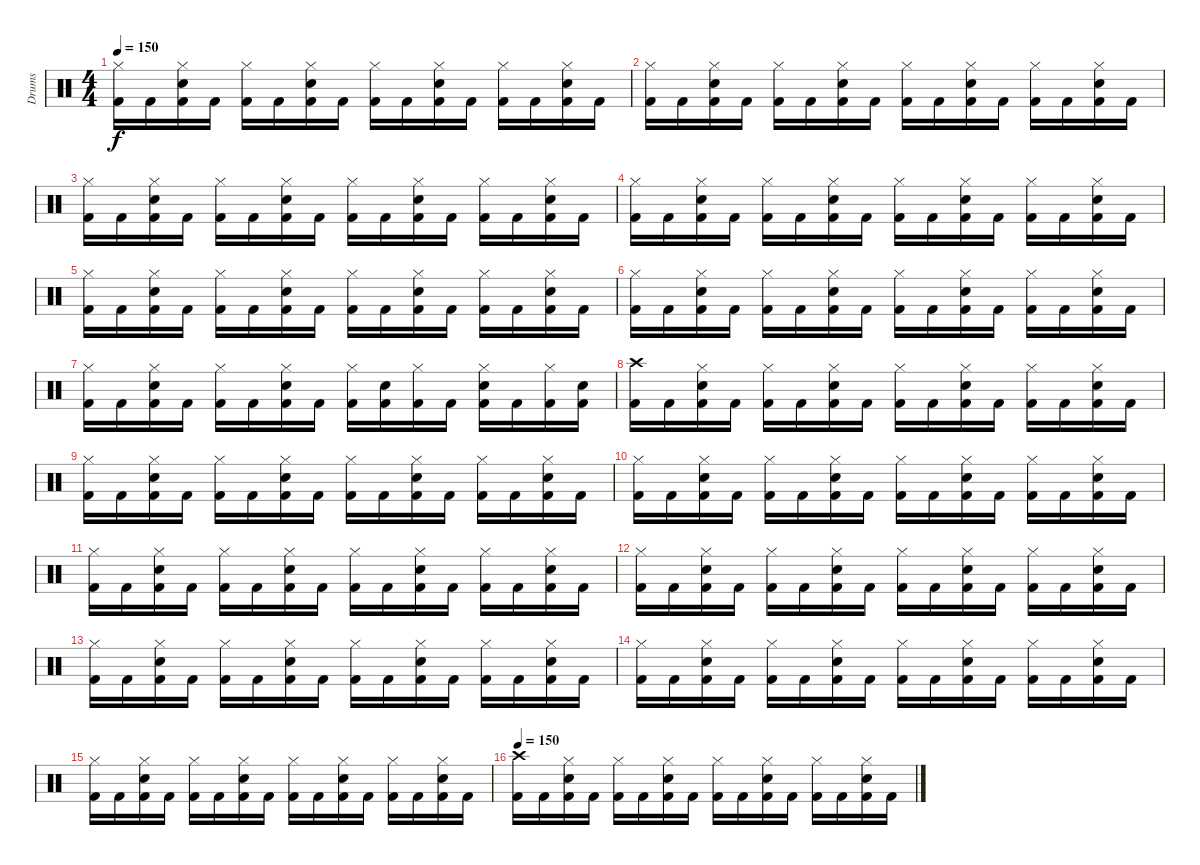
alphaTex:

\track ("Drums" "Drums") {instrument percussion}
\staff {score}
\articulation defaults
\ts (4 4)
\tempo 150
\clef neutral
\ks c
("Hi-Hat (closed)" "Kick (hit) 2").16{dy f} "Kick (hit) 2".16 ("Hi-Hat (closed)" "Electric Snare (hit)" "Kick (hit) 2").16 "Kick (hit) 2".16 ("Hi-Hat (closed)" "Kick (hit) 2").16 "Kick (hit) 2".16 ("Hi-Hat (closed)" "Electric Snare (hit)" "Kick (hit) 2").16 "Kick (hit) 2".16 ("Hi-Hat (closed)" "Kick (hit) 2").16 "Kick (hit) 2".16 ("Hi-Hat (closed)" "Electric Snare (hit)" "Kick (hit) 2").16 "Kick (hit) 2".16 ("Hi-Hat (closed)" "Kick (hit) 2").16 "Kick (hit) 2".16 ("Hi-Hat (closed)" "Electric Snare (hit)" "Kick (hit) 2").16 "Kick (hit) 2".16 |
("Hi-Hat (closed)" "Kick (hit) 2").16 "Kick (hit) 2".16 ("Hi-Hat (closed)" "Electric Snare (hit)" "Kick (hit) 2").16 "Kick (hit) 2".16 ("Hi-Hat (closed)" "Kick (hit) 2").16 "Kick (hit) 2".16 ("Hi-Hat (closed)" "Electric Snare (hit)" "Kick (hit) 2").16 "Kick (hit) 2".16 ("Hi-Hat (closed)" "Kick (hit) 2").16 "Kick (hit) 2".16 ("Hi-Hat (closed)" "Electric Snare (hit)" "Kick (hit) 2").16 "Kick (hit) 2".16 ("Hi-Hat (closed)" "Kick (hit) 2").16 "Kick (hit) 2".16 ("Hi-Hat (closed)" "Electric Snare (hit)" "Kick (hit) 2").16 "Kick (hit) 2".16 |
("Hi-Hat (closed)" "Kick (hit) 2").16 "Kick (hit) 2".16 ("Hi-Hat (closed)" "Electric Snare (hit)" "Kick (hit) 2").16 "Kick (hit) 2".16 ("Hi-Hat (closed)" "Kick (hit) 2").16 "Kick (hit) 2".16 ("Hi-Hat (closed)" "Electric Snare (hit)" "Kick (hit) 2").16 "Kick (hit) 2".16 ("Hi-Hat (closed)" "Kick (hit) 2").16 "Kick (hit) 2".16 ("Hi-Hat (closed)" "Electric Snare (hit)" "Kick (hit) 2").16 "Kick (hit) 2".16 ("Hi-Hat (closed)" "Kick (hit) 2").16 "Kick (hit) 2".16 ("Hi-Hat (closed)" "Electric Snare (hit)" "Kick (hit) 2").16 "Kick (hit) 2".16 |
("Hi-Hat (closed)" "Kick (hit) 2").16 "Kick (hit) 2".16 ("Hi-Hat (closed)" "Electric Snare (hit)" "Kick (hit) 2").16 "Kick (hit) 2".16 ("Hi-Hat (closed)" "Kick (hit) 2").16 "Kick (hit) 2".16 ("Hi-Hat (closed)" "Electric Snare (hit)" "Kick (hit) 2").16 "Kick (hit) 2".16 ("Hi-Hat (closed)" "Kick (hit) 2").16 "Kick (hit) 2".16 ("Hi-Hat (closed)" "Electric Snare (hit)" "Kick (hit) 2").16 "Kick (hit) 2".16 ("Hi-Hat (closed)" "Kick (hit) 2").16 "Kick (hit) 2".16 ("Hi-Hat (closed)" "Electric Snare (hit)" "Kick (hit) 2").16 "Kick (hit) 2".16 |
("Hi-Hat (closed)" "Kick (hit) 2").16 "Kick (hit) 2".16 ("Hi-Hat (closed)" "Electric Snare (hit)" "Kick (hit) 2").16 "Kick (hit) 2".16 ("Hi-Hat (closed)" "Kick (hit) 2").16 "Kick (hit) 2".16 ("Hi-Hat (closed)" "Electric Snare (hit)" "Kick (hit) 2").16 "Kick (hit) 2".16 ("Hi-Hat (closed)" "Kick (hit) 2").16 "Kick (hit) 2".16 ("Hi-Hat (closed)" "Electric Snare (hit)" "Kick (hit) 2").16 "Kick (hit) 2".16 ("Hi-Hat (closed)" "Kick (hit) 2").16 "Kick (hit) 2".16 ("Hi-Hat (closed)" "Electric Snare (hit)" "Kick (hit) 2").16 "Kick (hit) 2".16 |
("Hi-Hat (closed)" "Kick (hit) 2").16 "Kick (hit) 2".16 ("Hi-Hat (closed)" "Electric Snare (hit)" "Kick (hit) 2").16 "Kick (hit) 2".16 ("Hi-Hat (closed)" "Kick (hit) 2").16 "Kick (hit) 2".16 ("Hi-Hat (closed)" "Electric Snare (hit)" "Kick (hit) 2").16 "Kick (hit) 2".16 ("Hi-Hat (closed)" "Kick (hit) 2").16 "Kick (hit) 2".16 ("Hi-Hat (closed)" "Electric Snare (hit)" "Kick (hit) 2").16 "Kick (hit) 2".16 ("Hi-Hat (closed)" "Kick (hit) 2").16 "Kick (hit) 2".16 ("Hi-Hat (closed)" "Electric Snare (hit)" "Kick (hit) 2").16 "Kick (hit) 2".16 |
("Hi-Hat (closed)" "Kick (hit) 2").16 "Kick (hit) 2".16 ("Hi-Hat (closed)" "Electric Snare (hit)" "Kick (hit) 2").16 "Kick (hit) 2".16 ("Hi-Hat (closed)" "Kick (hit) 2").16 "Kick (hit) 2".16 ("Hi-Hat (closed)" "Electric Snare (hit)" "Kick (hit) 2").16 "Kick (hit) 2".16 ("Hi-Hat (closed)" "Kick (hit) 2").16 ("Electric Snare (hit)" "Kick (hit) 2").16 ("Hi-Hat (closed)" "Kick (hit) 2").16 "Kick (hit) 2".16 ("Hi-Hat (closed)" "Electric Snare (hit)" "Kick (hit) 2").16 "Kick (hit) 2".16 ("Hi-Hat (closed)" "Kick (hit) 2").16 ("Electric Snare (hit)" "Kick (hit) 2").16 |
("Crash high (hit)" "Kick (hit) 2").16 "Kick (hit) 2".16 ("Hi-Hat (closed)" "Electric Snare (hit)" "Kick (hit) 2").16 "Kick (hit) 2".16 ("Hi-Hat (closed)" "Kick (hit) 2").16 "Kick (hit) 2".16 ("Hi-Hat (closed)" "Electric Snare (hit)" "Kick (hit) 2").16 "Kick (hit) 2".16 ("Hi-Hat (closed)" "Kick (hit) 2").16 "Kick (hit) 2".16 ("Hi-Hat (closed)" "Electric Snare (hit)" "Kick (hit) 2").16 "Kick (hit) 2".16 ("Hi-Hat (closed)" "Kick (hit) 2").16 "Kick (hit) 2".16 ("Hi-Hat (closed)" "Electric Snare (hit)" "Kick (hit) 2").16 "Kick (hit) 2".16 |
("Hi-Hat (closed)" "Kick (hit) 2").16 "Kick (hit) 2".16 ("Hi-Hat (closed)" "Electric Snare (hit)" "Kick (hit) 2").16 "Kick (hit) 2".16 ("Hi-Hat (closed)" "Kick (hit) 2").16 "Kick (hit) 2".16 ("Hi-Hat (closed)" "Electric Snare (hit)" "Kick (hit) 2").16 "Kick (hit) 2".16 ("Hi-Hat (closed)" "Kick (hit) 2").16 "Kick (hit) 2".16 ("Hi-Hat (closed)" "Electric Snare (hit)" "Kick (hit) 2").16 "Kick (hit) 2".16 ("Hi-Hat (closed)" "Kick (hit) 2").16 "Kick (hit) 2".16 ("Hi-Hat (closed)" "Electric Snare (hit)" "Kick (hit) 2").16 "Kick (hit) 2".16 |
("Hi-Hat (closed)" "Kick (hit) 2").16 "Kick (hit) 2".16 ("Hi-Hat (closed)" "Electric Snare (hit)" "Kick (hit) 2").16 "Kick (hit) 2".16 ("Hi-Hat (closed)" "Kick (hit) 2").16 "Kick (hit) 2".16 ("Hi-Hat (closed)" "Electric Snare (hit)" "Kick (hit) 2").16 "Kick (hit) 2".16 ("Hi-Hat (closed)" "Kick (hit) 2").16 "Kick (hit) 2".16 ("Hi-Hat (closed)" "Electric Snare (hit)" "Kick (hit) 2").16 "Kick (hit) 2".16 ("Hi-Hat (closed)" "Kick (hit) 2").16 "Kick (hit) 2".16 ("Hi-Hat (closed)" "Electric Snare (hit)" "Kick (hit) 2").16 "Kick (hit) 2".16 |
("Hi-Hat (closed)" "Kick (hit) 2").16 "Kick (hit) 2".16 ("Hi-Hat (closed)" "Electric Snare (hit)" "Kick (hit) 2").16 "Kick (hit) 2".16 ("Hi-Hat (closed)" "Kick (hit) 2").16 "Kick (hit) 2".16 ("Hi-Hat (closed)" "Electric Snare (hit)" "Kick (hit) 2").16 "Kick (hit) 2".16 ("Hi-Hat (closed)" "Kick (hit) 2").16 "Kick (hit) 2".16 ("Hi-Hat (closed)" "Electric Snare (hit)" "Kick (hit) 2").16 "Kick (hit) 2".16 ("Hi-Hat (closed)" "Kick (hit) 2").16 "Kick (hit) 2".16 ("Hi-Hat (closed)" "Electric Snare (hit)" "Kick (hit) 2").16 "Kick (hit) 2".16 |
("Hi-Hat (closed)" "Kick (hit) 2").16 "Kick (hit) 2".16 ("Hi-Hat (closed)" "Electric Snare (hit)" "Kick (hit) 2").16 "Kick (hit) 2".16 ("Hi-Hat (closed)" "Kick (hit) 2").16 "Kick (hit) 2".16 ("Hi-Hat (closed)" "Electric Snare (hit)" "Kick (hit) 2").16 "Kick (hit) 2".16 ("Hi-Hat (closed)" "Kick (hit) 2").16 "Kick (hit) 2".16 ("Hi-Hat (closed)" "Electric Snare (hit)" "Kick (hit) 2").16 "Kick (hit) 2".16 ("Hi-Hat (closed)" "Kick (hit) 2").16 "Kick (hit) 2".16 ("Hi-Hat (closed)" "Electric Snare (hit)" "Kick (hit) 2").16 "Kick (hit) 2".16 |
("Hi-Hat (closed)" "Kick (hit) 2").16 "Kick (hit) 2".16 ("Hi-Hat (closed)" "Electric Snare (hit)" "Kick (hit) 2").16 "Kick (hit) 2".16 ("Hi-Hat (closed)" "Kick (hit) 2").16 "Kick (hit) 2".16 ("Hi-Hat (closed)" "Electric Snare (hit)" "Kick (hit) 2").16 "Kick (hit) 2".16 ("Hi-Hat (closed)" "Kick (hit) 2").16 "Kick (hit) 2".16 ("Hi-Hat (closed)" "Electric Snare (hit)" "Kick (hit) 2").16 "Kick (hit) 2".16 ("Hi-Hat (closed)" "Kick (hit) 2").16 "Kick (hit) 2".16 ("Hi-Hat (closed)" "Electric Snare (hit)" "Kick (hit) 2").16 "Kick (hit) 2".16 |
("Hi-Hat (closed)" "Kick (hit) 2").16 "Kick (hit) 2".16 ("Hi-Hat (closed)" "Electric Snare (hit)" "Kick (hit) 2").16 "Kick (hit) 2".16 ("Hi-Hat (closed)" "Kick (hit) 2").16 "Kick (hit) 2".16 ("Hi-Hat (closed)" "Electric Snare (hit)" "Kick (hit) 2").16 "Kick (hit) 2".16 ("Hi-Hat (closed)" "Kick (hit) 2").16 "Kick (hit) 2".16 ("Hi-Hat (closed)" "Electric Snare (hit)" "Kick (hit) 2").16 "Kick (hit) 2".16 ("Hi-Hat (closed)" "Kick (hit) 2").16 "Kick (hit) 2".16 ("Hi-Hat (closed)" "Electric Snare (hit)" "Kick (hit) 2").16 "Kick (hit) 2".16 |
("Hi-Hat (closed)" "Kick (hit) 2").16 "Kick (hit) 2".16 ("Hi-Hat (closed)" "Electric Snare (hit)" "Kick (hit) 2").16 "Kick (hit) 2".16 ("Hi-Hat (closed)" "Kick (hit) 2").16 "Kick (hit) 2".16 ("Hi-Hat (closed)" "Electric Snare (hit)" "Kick (hit) 2").16 "Kick (hit) 2".16 ("Hi-Hat (closed)" "Kick (hit) 2").16 "Kick (hit) 2".16 ("Hi-Hat (closed)" "Electric Snare (hit)" "Kick (hit) 2").16 "Kick (hit) 2".16 ("Hi-Hat (closed)" "Kick (hit) 2").16 "Kick (hit) 2".16 ("Hi-Hat (closed)" "Electric Snare (hit)" "Kick (hit) 2").16 "Kick (hit) 2".16 |
\tempo 150
("Crash high (hit)" "Kick (hit) 2").16 "Kick (hit) 2".16 ("Hi-Hat (closed)" "Electric Snare (hit)" "Kick (hit) 2").16 "Kick (hit) 2".16 ("Hi-Hat (closed)" "Kick (hit) 2").16 "Kick (hit) 2".16 ("Hi-Hat (closed)" "Electric Snare (hit)" "Kick (hit) 2").16 "Kick (hit) 2".16 ("Hi-Hat (closed)" "Kick (hit) 2").16 "Kick (hit) 2".16 ("Hi-Hat (closed)" "Electric Snare (hit)" "Kick (hit) 2").16 "Kick (hit) 2".16 ("Hi-Hat (closed)" "Kick (hit) 2").16 "Kick (hit) 2".16 ("Hi-Hat (closed)" "Electric Snare (hit)" "Kick (hit) 2").16 "Kick (hit) 2".16
